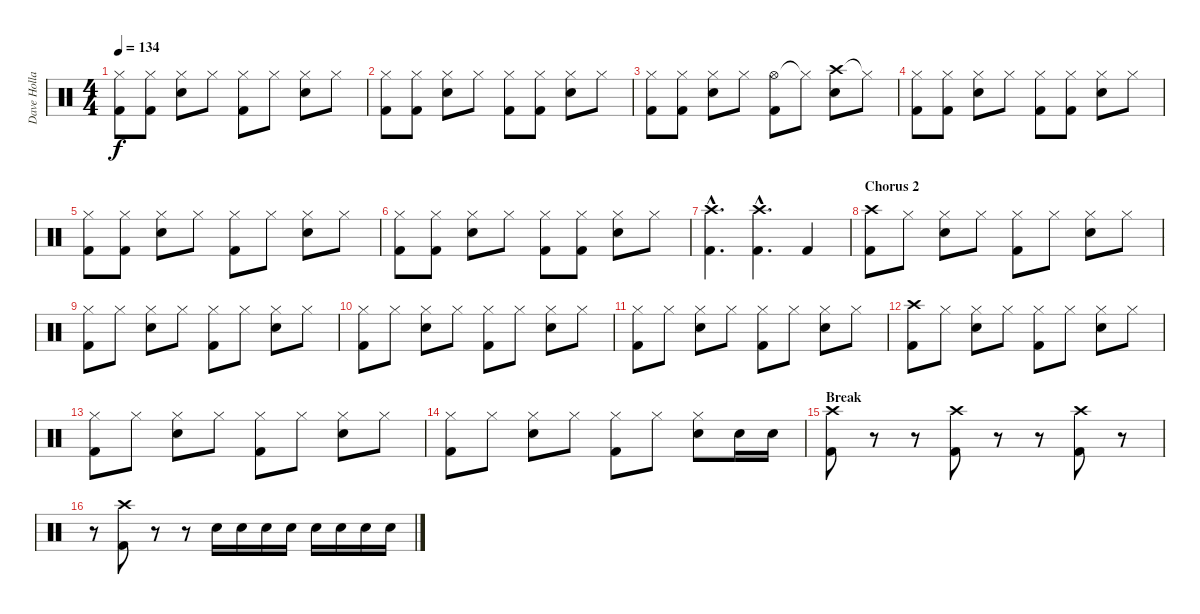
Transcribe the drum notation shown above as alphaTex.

\track ("Dave Holland" "Dave Holla") {instrument percussion}
\staff {score}
\articulation defaults
\ts (4 4)
\tempo 134
\clef neutral
\ks c
("Hi-Hat (closed)" "Kick (hit) 2").8{dy f} ("Hi-Hat (closed)" "Kick (hit) 2").8 ("Hi-Hat (closed)" "Snare (hit) 2").8 "Hi-Hat (closed)".8 ("Hi-Hat (closed)" "Kick (hit) 2").8 "Hi-Hat (closed)".8 ("Hi-Hat (closed)" "Snare (hit) 2").8 "Hi-Hat (closed)".8 |
("Hi-Hat (closed)" "Kick (hit) 2").8 ("Hi-Hat (closed)" "Kick (hit) 2").8 ("Hi-Hat (closed)" "Snare (hit) 2").8 "Hi-Hat (closed)".8 ("Hi-Hat (closed)" "Kick (hit) 2").8 ("Hi-Hat (closed)" "Kick (hit) 2").8 ("Hi-Hat (closed)" "Snare (hit) 2").8 "Hi-Hat (closed)".8 |
("Hi-Hat (closed)" "Kick (hit) 2").8 ("Hi-Hat (closed)" "Kick (hit) 2").8 ("Hi-Hat (closed)" "Snare (hit) 2").8 "Hi-Hat (closed)".8 ("Hi-Hat (open)" "Kick (hit) 2").8 "Hi-Hat (closed)"{t}.8 ("Crash high (hit)" "Snare (hit) 2").8 "Hi-Hat (closed)"{t}.8 |
("Hi-Hat (closed)" "Kick (hit) 2").8 ("Hi-Hat (closed)" "Kick (hit) 2").8 ("Hi-Hat (closed)" "Snare (hit) 2").8 "Hi-Hat (closed)".8 ("Hi-Hat (closed)" "Kick (hit) 2").8 ("Hi-Hat (closed)" "Kick (hit) 2").8 ("Hi-Hat (closed)" "Snare (hit) 2").8 "Hi-Hat (closed)".8 |
("Hi-Hat (closed)" "Kick (hit) 2").8 ("Hi-Hat (closed)" "Kick (hit) 2").8 ("Hi-Hat (closed)" "Snare (hit) 2").8 "Hi-Hat (closed)".8 ("Hi-Hat (closed)" "Kick (hit) 2").8 "Hi-Hat (closed)".8 ("Hi-Hat (closed)" "Snare (hit) 2").8 "Hi-Hat (closed)".8 |
("Hi-Hat (closed)" "Kick (hit) 2").8 ("Hi-Hat (closed)" "Kick (hit) 2").8 ("Hi-Hat (closed)" "Snare (hit) 2").8 "Hi-Hat (closed)".8 ("Hi-Hat (closed)" "Kick (hit) 2").8 ("Hi-Hat (closed)" "Kick (hit) 2").8 ("Hi-Hat (closed)" "Snare (hit) 2").8 "Hi-Hat (closed)".8 |
("Crash high (hit)"{hac} "Kick (hit) 2"{hac}).4{d} ("Crash high (hit)"{hac} "Kick (hit) 2"{hac}).4{d} "Kick (hit) 2".4 |
\section ("" "Chorus 2")
("Crash high (hit)" "Kick (hit) 2").8 "Hi-Hat (closed)".8 ("Hi-Hat (closed)" "Snare (hit) 2").8 "Hi-Hat (closed)".8 ("Hi-Hat (closed)" "Kick (hit) 2").8 "Hi-Hat (closed)".8 ("Hi-Hat (closed)" "Snare (hit) 2").8 "Hi-Hat (closed)".8 |
("Hi-Hat (closed)" "Kick (hit) 2").8 "Hi-Hat (closed)".8 ("Hi-Hat (closed)" "Snare (hit) 2").8 "Hi-Hat (closed)".8 ("Hi-Hat (closed)" "Kick (hit) 2").8 "Hi-Hat (closed)".8 ("Hi-Hat (closed)" "Snare (hit) 2").8 "Hi-Hat (closed)".8 |
("Hi-Hat (closed)" "Kick (hit) 2").8 "Hi-Hat (closed)".8 ("Hi-Hat (closed)" "Snare (hit) 2").8 "Hi-Hat (closed)".8 ("Hi-Hat (closed)" "Kick (hit) 2").8 "Hi-Hat (closed)".8 ("Hi-Hat (closed)" "Snare (hit) 2").8 "Hi-Hat (closed)".8 |
("Hi-Hat (closed)" "Kick (hit) 2").8 "Hi-Hat (closed)".8 ("Hi-Hat (closed)" "Snare (hit) 2").8 "Hi-Hat (closed)".8 ("Hi-Hat (closed)" "Kick (hit) 2").8 "Hi-Hat (closed)".8 ("Hi-Hat (closed)" "Snare (hit) 2").8 "Hi-Hat (closed)".8 |
("Crash high (hit)" "Kick (hit) 2").8 "Hi-Hat (closed)".8 ("Hi-Hat (closed)" "Snare (hit) 2").8 "Hi-Hat (closed)".8 ("Hi-Hat (closed)" "Kick (hit) 2").8 "Hi-Hat (closed)".8 ("Hi-Hat (closed)" "Snare (hit) 2").8 "Hi-Hat (closed)".8 |
("Hi-Hat (closed)" "Kick (hit) 2").8 "Hi-Hat (closed)".8 ("Hi-Hat (closed)" "Snare (hit) 2").8 "Hi-Hat (closed)".8 ("Hi-Hat (closed)" "Kick (hit) 2").8 "Hi-Hat (closed)".8 ("Hi-Hat (closed)" "Snare (hit) 2").8 "Hi-Hat (closed)".8 |
("Hi-Hat (closed)" "Kick (hit) 2").8 "Hi-Hat (closed)".8 ("Hi-Hat (closed)" "Snare (hit) 2").8 "Hi-Hat (closed)".8 ("Hi-Hat (closed)" "Kick (hit) 2").8 "Hi-Hat (closed)".8 ("Hi-Hat (closed)" "Snare (hit) 2").8 "Snare (hit) 2".16 "Snare (hit) 2".16 |
\section ("" "Break")
("Crash high (hit)" "Kick (hit) 2").8 r.8 r.8 ("Crash high (hit)" "Kick (hit) 2").8 r.8 r.8 ("Crash high (hit)" "Kick (hit) 2").8 r.8 |
r.8 ("Crash high (hit)" "Kick (hit) 2").8 r.8 r.8 "Snare (hit) 2".16 "Snare (hit) 2".16 "Snare (hit) 2".16 "Snare (hit) 2".16 "Snare (hit) 2".16 "Snare (hit) 2".16 "Snare (hit) 2".16 "Snare (hit) 2".16
